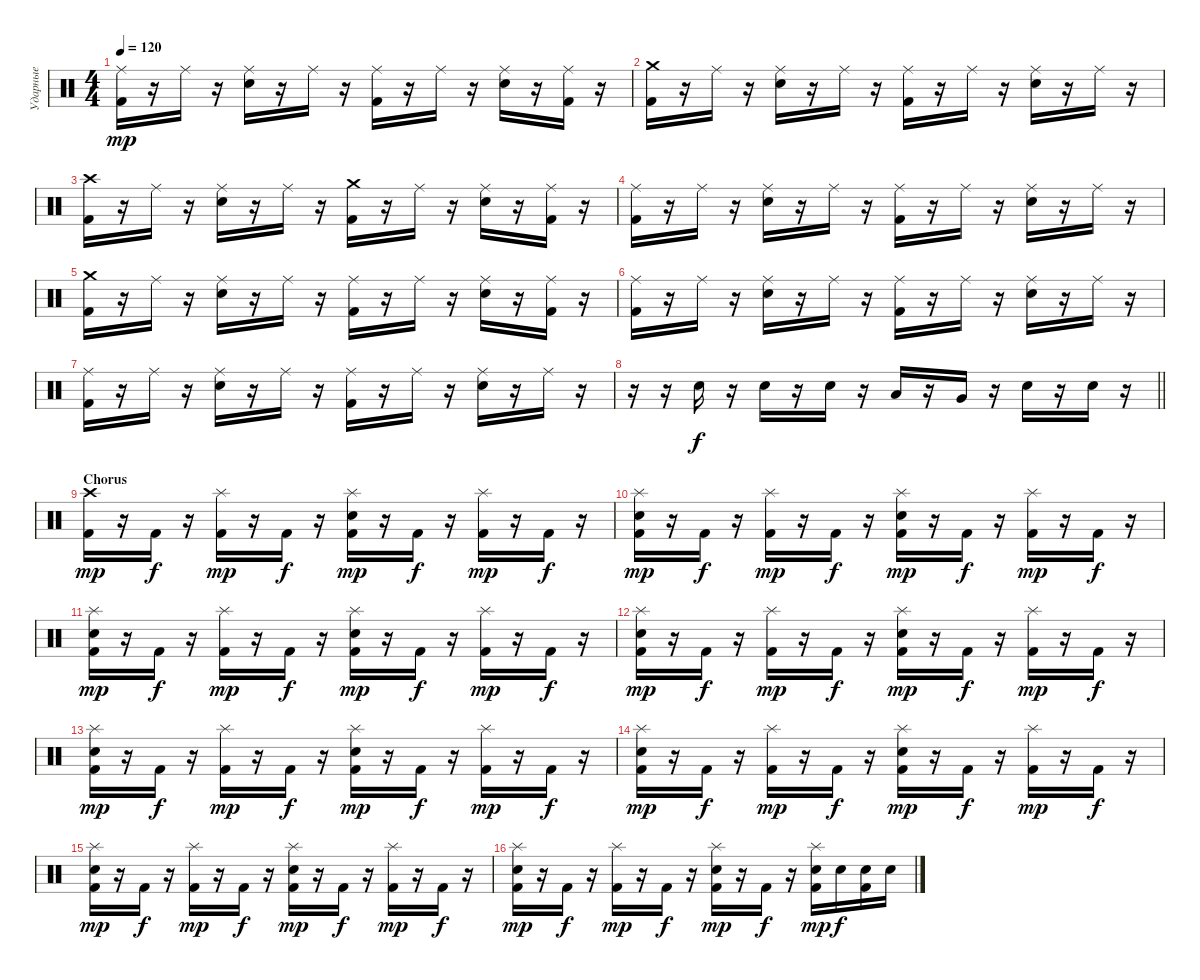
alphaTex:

\track ("Ударные" "Ударные") {instrument percussion}
\staff {score}
\articulation defaults
\ts (4 4)
\tempo 120
\clef neutral
\ks c
("Kick (hit) 2" "Ride (middle)").16{dy mp} r.16 "Ride (middle)".16 r.16 ("Ride (middle)" "Snare (hit) 2").16 r.16 "Ride (middle)".16 r.16 ("Kick (hit) 2" "Ride (middle)").16 r.16 "Ride (middle)".16 r.16 ("Ride (middle)" "Snare (hit) 2").16 r.16 ("Kick (hit) 2" "Ride (middle)").16 r.16 |
("Kick (hit) 2" "Crash medium (hit)").16 r.16 "Ride (middle)".16 r.16 ("Ride (middle)" "Snare (hit) 2").16 r.16 "Ride (middle)".16 r.16 ("Kick (hit) 2" "Ride (middle)").16 r.16 "Ride (middle)".16 r.16 ("Ride (middle)" "Snare (hit) 2").16 r.16 "Ride (middle)".16 r.16 |
("Kick (hit) 2" "Crash high (hit)").16 r.16 "Ride (middle)".16 r.16 ("Ride (middle)" "Snare (hit) 2").16 r.16 "Ride (middle)".16 r.16 ("Kick (hit) 2" "Crash medium (hit)").16 r.16 "Ride (middle)".16 r.16 ("Ride (middle)" "Snare (hit) 2").16 r.16 ("Kick (hit) 2" "Ride (middle)").16 r.16 |
("Kick (hit) 2" "Ride (middle)").16 r.16 "Ride (middle)".16 r.16 ("Ride (middle)" "Snare (hit) 2").16 r.16 "Ride (middle)".16 r.16 ("Kick (hit) 2" "Ride (middle)").16 r.16 "Ride (middle)".16 r.16 ("Ride (middle)" "Snare (hit) 2").16 r.16 "Ride (middle)".16 r.16 |
("Kick (hit) 2" "Crash medium (hit)").16 r.16 "Ride (middle)".16 r.16 ("Ride (middle)" "Snare (hit) 2").16 r.16 "Ride (middle)".16 r.16 ("Kick (hit) 2" "Ride (middle)").16 r.16 "Ride (middle)".16 r.16 ("Ride (middle)" "Snare (hit) 2").16 r.16 ("Kick (hit) 2" "Ride (middle)").16 r.16 |
("Kick (hit) 2" "Ride (middle)").16 r.16 "Ride (middle)".16 r.16 ("Ride (middle)" "Snare (hit) 2").16 r.16 "Ride (middle)".16 r.16 ("Kick (hit) 2" "Ride (middle)").16 r.16 "Ride (middle)".16 r.16 ("Ride (middle)" "Snare (hit) 2").16 r.16 "Ride (middle)".16 r.16 |
("Kick (hit) 2" "Ride (middle)").16 r.16 "Ride (middle)".16 r.16 ("Ride (middle)" "Snare (hit) 2").16 r.16 "Ride (middle)".16 r.16 ("Kick (hit) 2" "Ride (middle)").16 r.16 "Ride (middle)".16 r.16 ("Ride (middle)" "Snare (hit) 2").16 r.16 "Ride (middle)".16 r.16 |
\barLineRight lightlight
r.16 r.16 "Snare (hit) 2".16{dy f} r.16 "Snare (hit) 2".16 r.16 "Snare (hit) 2".16 r.16 "Low Tom (hit)".16 r.16 "Very Low Tom (hit)".16 r.16 "Snare (hit) 2".16 r.16 "Snare (hit) 2".16 r.16 |
\section ("" "Chorus")
("Kick (hit) 2" "Crash high (hit)").16{dy mp} r.16 "Kick (hit) 2".16{dy f} r.16 ("Kick (hit) 2" "Splash (hit)").16{dy mp} r.16 "Kick (hit) 2".16{dy f} r.16 ("Kick (hit) 2" "Splash (hit)" "Snare (hit) 2").16{dy mp} r.16 "Kick (hit) 2".16{dy f} r.16 ("Kick (hit) 2" "Splash (hit)").16{dy mp} r.16 "Kick (hit) 2".16{dy f} r.16 |
("Kick (hit) 2" "Splash (hit)" "Snare (hit) 2").16{dy mp} r.16 "Kick (hit) 2".16{dy f} r.16 ("Kick (hit) 2" "Splash (hit)").16{dy mp} r.16 "Kick (hit) 2".16{dy f} r.16 ("Kick (hit) 2" "Splash (hit)" "Snare (hit) 2").16{dy mp} r.16 "Kick (hit) 2".16{dy f} r.16 ("Kick (hit) 2" "Splash (hit)").16{dy mp} r.16 "Kick (hit) 2".16{dy f} r.16 |
("Kick (hit) 2" "Splash (hit)" "Snare (hit) 2").16{dy mp} r.16 "Kick (hit) 2".16{dy f} r.16 ("Kick (hit) 2" "Splash (hit)").16{dy mp} r.16 "Kick (hit) 2".16{dy f} r.16 ("Kick (hit) 2" "Splash (hit)" "Snare (hit) 2").16{dy mp} r.16 "Kick (hit) 2".16{dy f} r.16 ("Kick (hit) 2" "Splash (hit)").16{dy mp} r.16 "Kick (hit) 2".16{dy f} r.16 |
("Kick (hit) 2" "Splash (hit)" "Snare (hit) 2").16{dy mp} r.16 "Kick (hit) 2".16{dy f} r.16 ("Kick (hit) 2" "Splash (hit)").16{dy mp} r.16 "Kick (hit) 2".16{dy f} r.16 ("Kick (hit) 2" "Splash (hit)" "Snare (hit) 2").16{dy mp} r.16 "Kick (hit) 2".16{dy f} r.16 ("Kick (hit) 2" "Splash (hit)").16{dy mp} r.16 "Kick (hit) 2".16{dy f} r.16 |
("Kick (hit) 2" "Splash (hit)" "Snare (hit) 2").16{dy mp} r.16 "Kick (hit) 2".16{dy f} r.16 ("Kick (hit) 2" "Splash (hit)").16{dy mp} r.16 "Kick (hit) 2".16{dy f} r.16 ("Kick (hit) 2" "Splash (hit)" "Snare (hit) 2").16{dy mp} r.16 "Kick (hit) 2".16{dy f} r.16 ("Kick (hit) 2" "Splash (hit)").16{dy mp} r.16 "Kick (hit) 2".16{dy f} r.16 |
("Kick (hit) 2" "Splash (hit)" "Snare (hit) 2").16{dy mp} r.16 "Kick (hit) 2".16{dy f} r.16 ("Kick (hit) 2" "Splash (hit)").16{dy mp} r.16 "Kick (hit) 2".16{dy f} r.16 ("Kick (hit) 2" "Splash (hit)" "Snare (hit) 2").16{dy mp} r.16 "Kick (hit) 2".16{dy f} r.16 ("Kick (hit) 2" "Splash (hit)").16{dy mp} r.16 "Kick (hit) 2".16{dy f} r.16 |
("Kick (hit) 2" "Splash (hit)" "Snare (hit) 2").16{dy mp} r.16 "Kick (hit) 2".16{dy f} r.16 ("Kick (hit) 2" "Splash (hit)").16{dy mp} r.16 "Kick (hit) 2".16{dy f} r.16 ("Kick (hit) 2" "Splash (hit)" "Snare (hit) 2").16{dy mp} r.16 "Kick (hit) 2".16{dy f} r.16 ("Kick (hit) 2" "Splash (hit)").16{dy mp} r.16 "Kick (hit) 2".16{dy f} r.16 |
("Kick (hit) 2" "Splash (hit)" "Snare (hit) 2").16{dy mp} r.16 "Kick (hit) 2".16{dy f} r.16 ("Kick (hit) 2" "Splash (hit)").16{dy mp} r.16 "Kick (hit) 2".16{dy f} r.16 ("Kick (hit) 2" "Splash (hit)" "Snare (hit) 2").16{dy mp} r.16 "Kick (hit) 2".16{dy f} r.16 ("Kick (hit) 2" "Splash (hit)" "Snare (hit) 2").16{dy mp} "Snare (hit) 2".16{dy f} ("Kick (hit) 2" "Snare (hit) 2").16 "Snare (hit) 2".16
